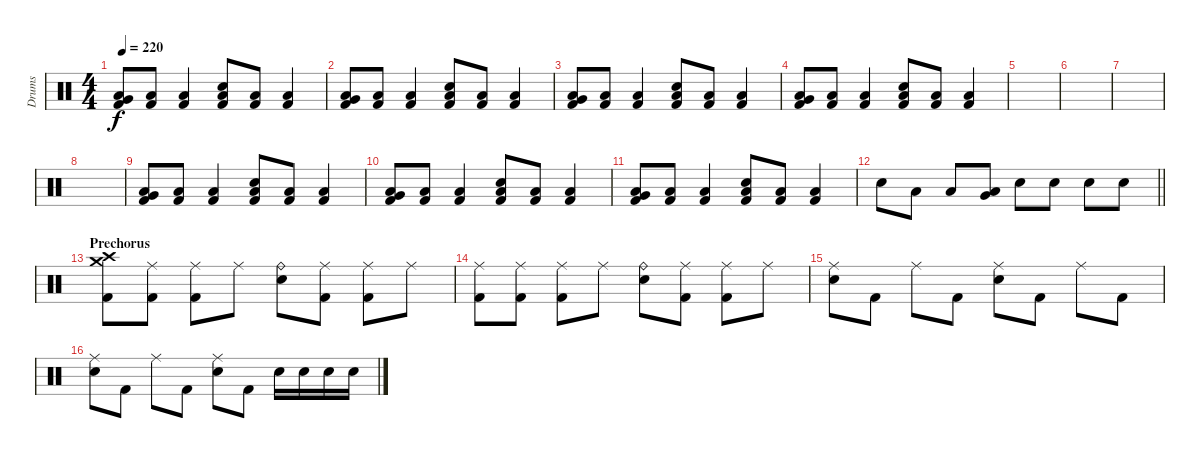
\track ("Drums" "Drums") {instrument percussion}
\staff {score}
\articulation defaults
\ts (4 4)
\tempo 220
\clef neutral
\ks c
("Very Low Tom (hit)" "Low Floor Tom (hit)" "Kick (hit) 2").8{dy f} ("Low Floor Tom (hit)" "Kick (hit) 2").8 ("Low Floor Tom (hit)" "Kick (hit) 2").4 ("Electric Snare (hit)" "Low Floor Tom (hit)" "Kick (hit) 2").8 ("Low Floor Tom (hit)" "Kick (hit) 2").8 ("Low Floor Tom (hit)" "Kick (hit) 2").4 |
("Very Low Tom (hit)" "Low Floor Tom (hit)" "Kick (hit) 2").8 ("Low Floor Tom (hit)" "Kick (hit) 2").8 ("Low Floor Tom (hit)" "Kick (hit) 2").4 ("Electric Snare (hit)" "Low Floor Tom (hit)" "Kick (hit) 2").8 ("Low Floor Tom (hit)" "Kick (hit) 2").8 ("Low Floor Tom (hit)" "Kick (hit) 2").4 |
("Very Low Tom (hit)" "Low Floor Tom (hit)" "Kick (hit) 2").8 ("Low Floor Tom (hit)" "Kick (hit) 2").8 ("Low Floor Tom (hit)" "Kick (hit) 2").4 ("Electric Snare (hit)" "Low Floor Tom (hit)" "Kick (hit) 2").8 ("Low Floor Tom (hit)" "Kick (hit) 2").8 ("Low Floor Tom (hit)" "Kick (hit) 2").4 |
("Very Low Tom (hit)" "Low Floor Tom (hit)" "Kick (hit) 2").8 ("Low Floor Tom (hit)" "Kick (hit) 2").8 ("Low Floor Tom (hit)" "Kick (hit) 2").4 ("Electric Snare (hit)" "Low Floor Tom (hit)" "Kick (hit) 2").8 ("Low Floor Tom (hit)" "Kick (hit) 2").8 ("Low Floor Tom (hit)" "Kick (hit) 2").4 |
|
|
|
|
("Very Low Tom (hit)" "Low Floor Tom (hit)" "Kick (hit) 2").8 ("Low Floor Tom (hit)" "Kick (hit) 2").8 ("Low Floor Tom (hit)" "Kick (hit) 2").4 ("Electric Snare (hit)" "Low Floor Tom (hit)" "Kick (hit) 2").8 ("Low Floor Tom (hit)" "Kick (hit) 2").8 ("Low Floor Tom (hit)" "Kick (hit) 2").4 |
("Very Low Tom (hit)" "Low Floor Tom (hit)" "Kick (hit) 2").8 ("Low Floor Tom (hit)" "Kick (hit) 2").8 ("Low Floor Tom (hit)" "Kick (hit) 2").4 ("Electric Snare (hit)" "Low Floor Tom (hit)" "Kick (hit) 2").8 ("Low Floor Tom (hit)" "Kick (hit) 2").8 ("Low Floor Tom (hit)" "Kick (hit) 2").4 |
("Very Low Tom (hit)" "Low Floor Tom (hit)" "Kick (hit) 2").8 ("Low Floor Tom (hit)" "Kick (hit) 2").8 ("Low Floor Tom (hit)" "Kick (hit) 2").4 ("Electric Snare (hit)" "Low Floor Tom (hit)" "Kick (hit) 2").8 ("Low Floor Tom (hit)" "Kick (hit) 2").8 ("Low Floor Tom (hit)" "Kick (hit) 2").4 |
\barLineRight lightlight "Electric Snare (hit)".8 "Low Floor Tom (hit)".8 "Low Floor Tom (hit)".8
("Very Low Tom (hit)" "Low Floor Tom (hit)").8 "Electric Snare (hit)".8 "Electric Snare (hit)".8 "Electric Snare (hit)".8 "Electric Snare (hit)".8 |
\section ("" "Prechorus")
("Crash medium (hit)" "Crash high (hit)" "Kick (hit) 2").8 ("Ride (middle)" "Kick (hit) 2").8 ("Ride (middle)" "Kick (hit) 2").8 "Ride (middle)".8 ("Ride (bell)" "Electric Snare (hit)").8 ("Ride (middle)" "Kick (hit) 2").8 ("Ride (middle)" "Kick (hit) 2").8 "Ride (middle)".8 |
("Ride (middle)" "Kick (hit) 2").8 ("Ride (middle)" "Kick (hit) 2").8 ("Ride (middle)" "Kick (hit) 2").8 "Ride (middle)".8 ("Ride (bell)" "Electric Snare (hit)").8 ("Ride (middle)" "Kick (hit) 2").8 ("Ride (middle)" "Kick (hit) 2").8 "Ride (middle)".8 |
("Ride (middle)" "Electric Snare (hit)").8 "Kick (hit) 2".8 "Ride (middle)".8 "Kick (hit) 2".8 ("Ride (middle)" "Electric Snare (hit)").8 "Kick (hit) 2".8 "Ride (middle)".8 "Kick (hit) 2".8 |
("Ride (middle)" "Electric Snare (hit)").8 "Kick (hit) 2".8 "Ride (middle)".8 "Kick (hit) 2".8 ("Ride (middle)" "Electric Snare (hit)").8 "Kick (hit) 2".8 "Electric Snare (hit)".16 "Electric Snare (hit)".16 "Electric Snare (hit)".16 "Electric Snare (hit)".16
